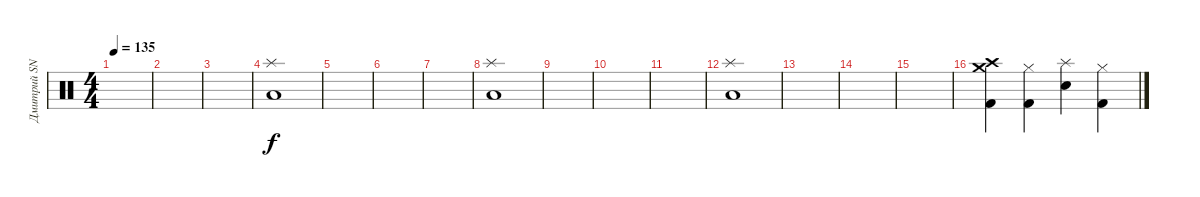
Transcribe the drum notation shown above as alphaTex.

\track ("Дмитрий SNAKE Хакимов" "Дмитрий SN") {instrument percussion}
\staff {score}
\articulation defaults
\ts (4 4)
\tempo 135
\clef neutral
\ks c
|
|
|
("Splash (hit)" "Low Floor Tom (hit)").1 |
|
|
|
("Splash (hit)" "Low Floor Tom (hit)").1 |
|
|
|
("Splash (hit)" "Low Floor Tom (hit)").1 |
|
|
|
("Crash high (hit)" "Crash medium (hit)" "Kick (hit) 2").4 ("Hi-Hat (closed)" "Kick (hit) 2").4 ("Splash (hit)" "Snare (hit) 2").4 ("Hi-Hat (closed)" "Kick (hit) 2").4
